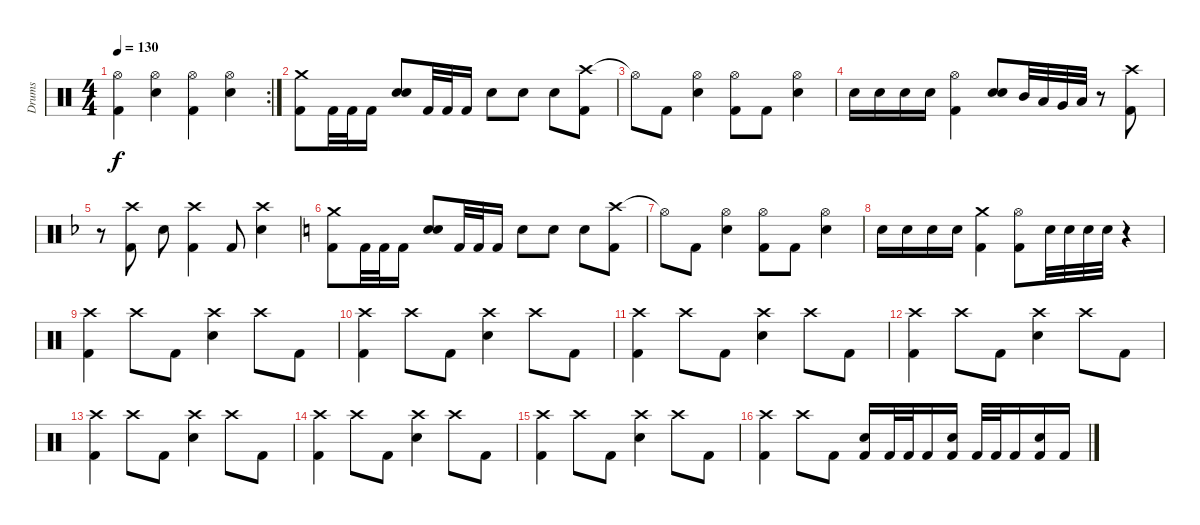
\track ("Drums" "Drums") {instrument percussion}
\staff {score}
\articulation defaults
\rc 2
\ts (4 4)
\tempo 130
\clef neutral
\ks c
("Hi-Hat (open)" "Kick (hit) 2").4{dy f} ("Hi-Hat (open)" "Snare (hit) 2").4 ("Hi-Hat (open)" "Kick (hit) 2").4 ("Hi-Hat (open)" "Snare (hit) 2").4 |
("Crash medium (hit)" "Kick (hit) 2").8 "Kick (hit) 2".32 "Kick (hit) 2".32 "Kick (hit) 2".16 ("Snare (hit) 2" "Snare (hit) 2").8{bd 120} "Kick (hit) 2".32 "Kick (hit) 2".32 "Kick (hit) 2".16 "Snare (hit) 2".8 "Snare (hit) 2".8 "Snare (hit) 2".8 ("Crash high (hit)" "Kick (hit) 2").8 |
"Hi-Hat (open)"{t}.8 "Kick (hit) 2".8 ("Hi-Hat (open)" "Snare (hit) 2").4 ("Hi-Hat (open)" "Kick (hit) 2").8 "Kick (hit) 2".8 ("Hi-Hat (open)" "Snare (hit) 2").4 |
"Snare (hit) 2".16 "Snare (hit) 2".16 "Snare (hit) 2".16 "Snare (hit) 2".16 ("Hi-Hat (open)" "Kick (hit) 2").4 ("Snare (hit) 2" "Snare (hit) 2").8{bd 120} "Mid Tom (hit)".32 "Low Tom (hit)".32 "Very Low Tom (hit)".32 "Low Floor Tom (hit)".32 r.8 ("Crash high (hit)" "Kick (hit) 2").8 |
\ks f
r.8 ("Crash high (hit)" "Kick (hit) 2").8 "Snare (hit) 2".8 ("Crash high (hit)" "Kick (hit) 2").4 "Kick (hit) 2".8 ("Crash high (hit)" "Snare (hit) 2").4 |
\ks c
("Crash medium (hit)" "Kick (hit) 2").8 "Kick (hit) 2".32 "Kick (hit) 2".32 "Kick (hit) 2".16 ("Snare (hit) 2" "Snare (hit) 2").8{bd 120} "Kick (hit) 2".32 "Kick (hit) 2".32 "Kick (hit) 2".16 "Snare (hit) 2".8 "Snare (hit) 2".8 "Snare (hit) 2".8 ("Crash high (hit)" "Kick (hit) 2").8 |
"Hi-Hat (open)"{t}.8 "Kick (hit) 2".8 ("Hi-Hat (open)" "Snare (hit) 2").4 ("Hi-Hat (open)" "Kick (hit) 2").8 "Kick (hit) 2".8 ("Hi-Hat (open)" "Snare (hit) 2").4 |
"Snare (hit) 2".16 "Snare (hit) 2".16 "Snare (hit) 2".16 "Snare (hit) 2".16 ("Crash medium (hit)" "Kick (hit) 2").4 ("Hi-Hat (open)" "Kick (hit) 2").8{bd 120} "Snare (hit) 2".32 "Snare (hit) 2".32 "Snare (hit) 2".32 "Snare (hit) 2".32 r.4 |
("Crash high (hit)" "Kick (hit) 2").4 "Crash high (hit)".8 "Kick (hit) 2".8 ("Crash high (hit)" "Snare (hit) 2").4 "Crash high (hit)".8 "Kick (hit) 2".8 |
("Crash high (hit)" "Kick (hit) 2").4 "Crash high (hit)".8 "Kick (hit) 2".8 ("Crash high (hit)" "Snare (hit) 2").4 "Crash high (hit)".8 "Kick (hit) 2".8 |
("Crash high (hit)" "Kick (hit) 2").4 "Crash high (hit)".8 "Kick (hit) 2".8 ("Crash high (hit)" "Snare (hit) 2").4 "Crash high (hit)".8 "Kick (hit) 2".8 |
("Crash high (hit)" "Kick (hit) 2").4 "Crash high (hit)".8 "Kick (hit) 2".8 ("Crash high (hit)" "Snare (hit) 2").4 "Crash high (hit)".8 "Kick (hit) 2".8 |
("Crash high (hit)" "Kick (hit) 2").4 "Crash high (hit)".8 "Kick (hit) 2".8 ("Crash high (hit)" "Snare (hit) 2").4 "Crash high (hit)".8 "Kick (hit) 2".8 |
("Crash high (hit)" "Kick (hit) 2").4 "Crash high (hit)".8 "Kick (hit) 2".8 ("Crash high (hit)" "Snare (hit) 2").4 "Crash high (hit)".8 "Kick (hit) 2".8 |
("Crash high (hit)" "Kick (hit) 2").4 "Crash high (hit)".8 "Kick (hit) 2".8 ("Crash high (hit)" "Snare (hit) 2").4 "Crash high (hit)".8 "Kick (hit) 2".8 |
("Crash high (hit)" "Kick (hit) 2").4 "Crash high (hit)".8 "Kick (hit) 2".8 ("Snare (hit) 2" "Kick (hit) 2").16 "Kick (hit) 2".32 "Kick (hit) 2".32 "Kick (hit) 2".16 ("Snare (hit) 2" "Kick (hit) 2").16 "Kick (hit) 2".32 "Kick (hit) 2".32 "Kick (hit) 2".16 ("Snare (hit) 2" "Kick (hit) 2").16 "Kick (hit) 2".16
